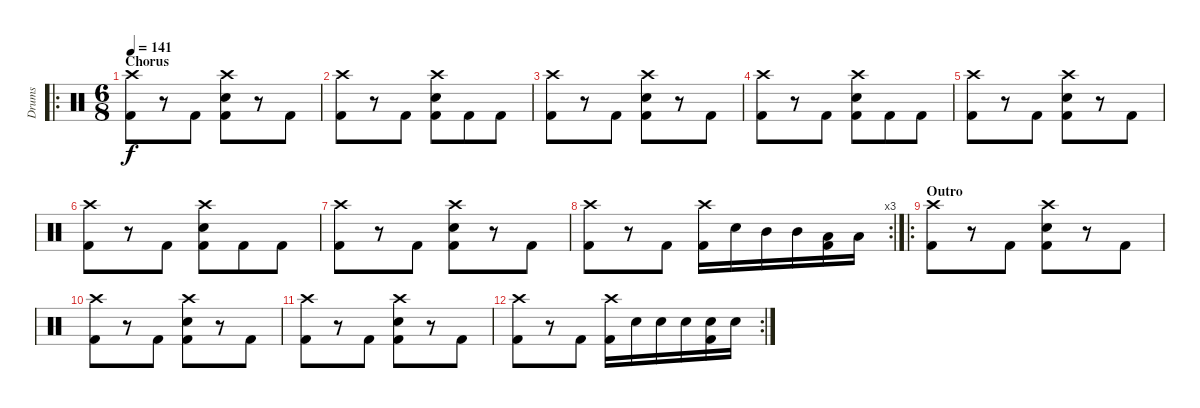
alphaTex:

\track ("Drums" "Drums") {instrument percussion}
\staff {score}
\articulation defaults
\ro
\ts (6 8)
\section ("" "Chorus")
\tempo 141
\clef neutral
\ks c
("Crash high (hit)" "Kick (hit) 2").8{dy f} r.8 "Kick (hit) 2".8 ("Crash high (hit)" "Electric Snare (hit)" "Kick (hit) 2").8 r.8 "Kick (hit) 2".8 |
("Crash high (hit)" "Kick (hit) 2").8 r.8 "Kick (hit) 2".8 ("Crash high (hit)" "Electric Snare (hit)" "Kick (hit) 2").8 "Kick (hit) 2".8 "Kick (hit) 2".8 |
("Crash high (hit)" "Kick (hit) 2").8 r.8 "Kick (hit) 2".8 ("Crash high (hit)" "Electric Snare (hit)" "Kick (hit) 2").8 r.8 "Kick (hit) 2".8 |
("Crash high (hit)" "Kick (hit) 2").8 r.8 "Kick (hit) 2".8 ("Crash high (hit)" "Electric Snare (hit)" "Kick (hit) 2").8 "Kick (hit) 2".8 "Kick (hit) 2".8 |
("Crash high (hit)" "Kick (hit) 2").8 r.8 "Kick (hit) 2".8 ("Crash high (hit)" "Electric Snare (hit)" "Kick (hit) 2").8 r.8 "Kick (hit) 2".8 |
("Crash high (hit)" "Kick (hit) 2").8 r.8 "Kick (hit) 2".8 ("Crash high (hit)" "Electric Snare (hit)" "Kick (hit) 2").8 "Kick (hit) 2".8 "Kick (hit) 2".8 |
("Crash high (hit)" "Kick (hit) 2").8 r.8 "Kick (hit) 2".8 ("Crash high (hit)" "Electric Snare (hit)" "Kick (hit) 2").8 r.8 "Kick (hit) 2".8 |
\rc 3
("Crash high (hit)" "Kick (hit) 2").8 r.8 "Kick (hit) 2".8 ("Crash high (hit)" "Kick (hit) 2").16 "Snare (hit)".16 "Mid Tom (hit)".16 "Mid Tom (hit)".16 ("Low Tom (hit)" "Kick (hit) 2").16 "Low Tom (hit)".16 |
\ro
\section ("" "Outro")
("Crash high (hit)" "Kick (hit) 2").8 r.8 "Kick (hit) 2".8 ("Crash high (hit)" "Electric Snare (hit)" "Kick (hit) 2").8 r.8 "Kick (hit) 2".8 |
("Crash high (hit)" "Kick (hit) 2").8 r.8 "Kick (hit) 2".8 ("Crash high (hit)" "Electric Snare (hit)" "Kick (hit) 2").8 r.8 "Kick (hit) 2".8 |
("Crash high (hit)" "Kick (hit) 2").8 r.8 "Kick (hit) 2".8 ("Crash high (hit)" "Electric Snare (hit)" "Kick (hit) 2").8 r.8 "Kick (hit) 2".8 |
\rc 2
("Crash high (hit)" "Kick (hit) 2").8 r.8 "Kick (hit) 2".8 ("Crash high (hit)" "Kick (hit) 2").16 "Electric Snare (hit)".16 "Electric Snare (hit)".16 "Electric Snare (hit)".16 ("Electric Snare (hit)" "Kick (hit) 2").16 "Electric Snare (hit)".16
